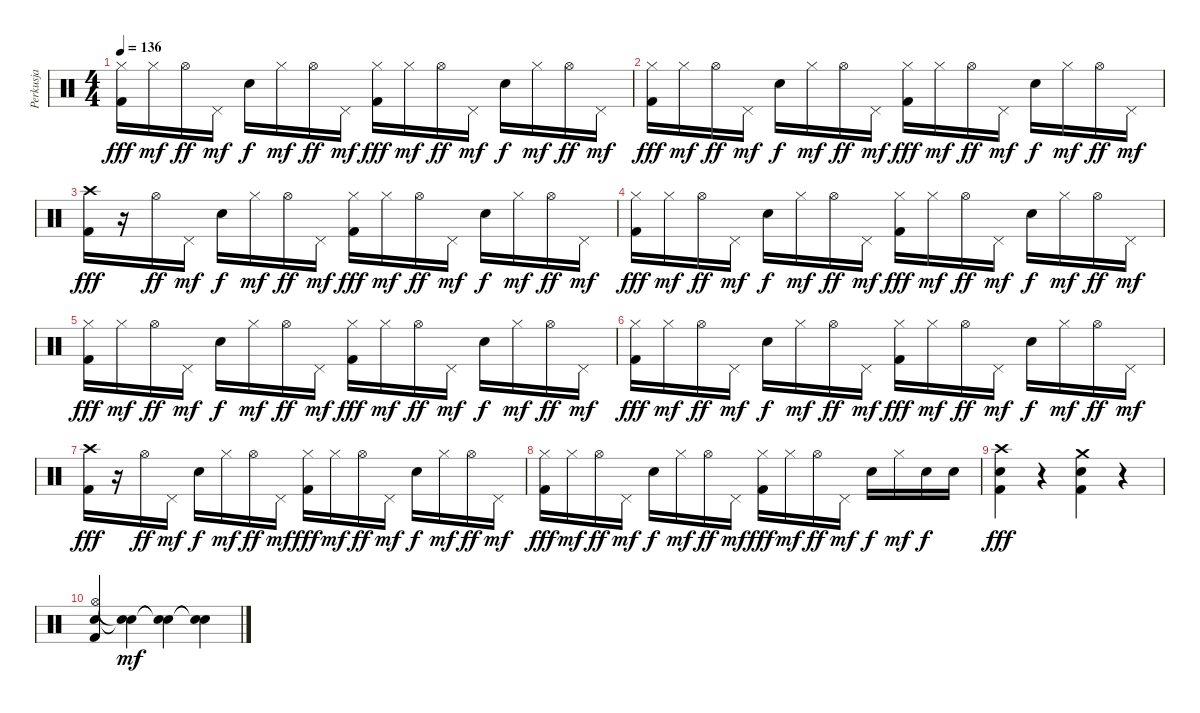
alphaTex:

\track ("Perkusja" "Perkusja") {instrument percussion}
\staff {score}
\articulation defaults
\ts (4 4)
\tempo 136
\clef neutral
\ks c
("Hi-Hat (closed)" "Kick (hit) 2").16{dy fff} "Hi-Hat (closed)".16{dy mf} "Hi-Hat (open)".16{dy ff} "Pedal Hi-Hat (hit)".16{dy mf} "Snare (hit) 2".16{dy f} "Hi-Hat (closed)".16{dy mf} "Hi-Hat (open)".16{dy ff} "Pedal Hi-Hat (hit)".16{dy mf} ("Hi-Hat (closed)" "Kick (hit) 2").16{dy fff} "Hi-Hat (closed)".16{dy mf} "Hi-Hat (open)".16{dy ff} "Pedal Hi-Hat (hit)".16{dy mf} "Snare (hit) 2".16{dy f} "Hi-Hat (closed)".16{dy mf} "Hi-Hat (open)".16{dy ff} "Pedal Hi-Hat (hit)".16{dy mf} |
("Hi-Hat (closed)" "Kick (hit) 2").16{dy fff} "Hi-Hat (closed)".16{dy mf} "Hi-Hat (open)".16{dy ff} "Pedal Hi-Hat (hit)".16{dy mf} "Snare (hit) 2".16{dy f} "Hi-Hat (closed)".16{dy mf} "Hi-Hat (open)".16{dy ff} "Pedal Hi-Hat (hit)".16{dy mf} ("Hi-Hat (closed)" "Kick (hit) 2").16{dy fff} "Hi-Hat (closed)".16{dy mf} "Hi-Hat (open)".16{dy ff} "Pedal Hi-Hat (hit)".16{dy mf} "Snare (hit) 2".16{dy f} "Hi-Hat (closed)".16{dy mf} "Hi-Hat (open)".16{dy ff} "Pedal Hi-Hat (hit)".16{dy mf} |
("Crash high (hit)" "Kick (hit) 2").16{dy fff} r.16 "Hi-Hat (open)".16{dy ff} "Pedal Hi-Hat (hit)".16{dy mf} "Snare (hit) 2".16{dy f} "Hi-Hat (closed)".16{dy mf} "Hi-Hat (open)".16{dy ff} "Pedal Hi-Hat (hit)".16{dy mf} ("Hi-Hat (closed)" "Kick (hit) 2").16{dy fff} "Hi-Hat (closed)".16{dy mf} "Hi-Hat (open)".16{dy ff} "Pedal Hi-Hat (hit)".16{dy mf} "Snare (hit) 2".16{dy f} "Hi-Hat (closed)".16{dy mf} "Hi-Hat (open)".16{dy ff} "Pedal Hi-Hat (hit)".16{dy mf} |
("Hi-Hat (closed)" "Kick (hit) 2").16{dy fff} "Hi-Hat (closed)".16{dy mf} "Hi-Hat (open)".16{dy ff} "Pedal Hi-Hat (hit)".16{dy mf} "Snare (hit) 2".16{dy f} "Hi-Hat (closed)".16{dy mf} "Hi-Hat (open)".16{dy ff} "Pedal Hi-Hat (hit)".16{dy mf} ("Hi-Hat (closed)" "Kick (hit) 2").16{dy fff} "Hi-Hat (closed)".16{dy mf} "Hi-Hat (open)".16{dy ff} "Pedal Hi-Hat (hit)".16{dy mf} "Snare (hit) 2".16{dy f} "Hi-Hat (closed)".16{dy mf} "Hi-Hat (open)".16{dy ff} "Pedal Hi-Hat (hit)".16{dy mf} |
("Hi-Hat (closed)" "Kick (hit) 2").16{dy fff} "Hi-Hat (closed)".16{dy mf} "Hi-Hat (open)".16{dy ff} "Pedal Hi-Hat (hit)".16{dy mf} "Snare (hit) 2".16{dy f} "Hi-Hat (closed)".16{dy mf} "Hi-Hat (open)".16{dy ff} "Pedal Hi-Hat (hit)".16{dy mf} ("Hi-Hat (closed)" "Kick (hit) 2").16{dy fff} "Hi-Hat (closed)".16{dy mf} "Hi-Hat (open)".16{dy ff} "Pedal Hi-Hat (hit)".16{dy mf} "Snare (hit) 2".16{dy f} "Hi-Hat (closed)".16{dy mf} "Hi-Hat (open)".16{dy ff} "Pedal Hi-Hat (hit)".16{dy mf} |
("Hi-Hat (closed)" "Kick (hit) 2").16{dy fff} "Hi-Hat (closed)".16{dy mf} "Hi-Hat (open)".16{dy ff} "Pedal Hi-Hat (hit)".16{dy mf} "Snare (hit) 2".16{dy f} "Hi-Hat (closed)".16{dy mf} "Hi-Hat (open)".16{dy ff} "Pedal Hi-Hat (hit)".16{dy mf} ("Hi-Hat (closed)" "Kick (hit) 2").16{dy fff} "Hi-Hat (closed)".16{dy mf} "Hi-Hat (open)".16{dy ff} "Pedal Hi-Hat (hit)".16{dy mf} "Snare (hit) 2".16{dy f} "Hi-Hat (closed)".16{dy mf} "Hi-Hat (open)".16{dy ff} "Pedal Hi-Hat (hit)".16{dy mf} |
("Crash high (hit)" "Kick (hit) 2").16{dy fff} r.16 "Hi-Hat (open)".16{dy ff} "Pedal Hi-Hat (hit)".16{dy mf} "Snare (hit) 2".16{dy f} "Hi-Hat (closed)".16{dy mf} "Hi-Hat (open)".16{dy ff} "Pedal Hi-Hat (hit)".16{dy mf} ("Hi-Hat (closed)" "Kick (hit) 2").16{dy fff} "Hi-Hat (closed)".16{dy mf} "Hi-Hat (open)".16{dy ff} "Pedal Hi-Hat (hit)".16{dy mf} "Snare (hit) 2".16{dy f} "Hi-Hat (closed)".16{dy mf} "Hi-Hat (open)".16{dy ff} "Pedal Hi-Hat (hit)".16{dy mf} |
("Hi-Hat (closed)" "Kick (hit) 2").16{dy fff} "Hi-Hat (closed)".16{dy mf} "Hi-Hat (open)".16{dy ff} "Pedal Hi-Hat (hit)".16{dy mf} "Snare (hit) 2".16{dy f} "Hi-Hat (closed)".16{dy mf} "Hi-Hat (open)".16{dy ff} "Pedal Hi-Hat (hit)".16{dy mf} ("Hi-Hat (closed)" "Kick (hit) 2").16{dy fff} "Hi-Hat (closed)".16{dy mf} "Hi-Hat (open)".16{dy ff} "Pedal Hi-Hat (hit)".16{dy mf} "Snare (hit) 2".16{dy f} "Hi-Hat (closed)".16{dy mf} "Snare (hit) 2".16{dy f} "Snare (hit) 2".16 |
("Crash high (hit)" "Snare (hit) 2" "Kick (hit) 2").4{dy fff} r.4 ("Crash medium (hit)" "Snare (hit) 2" "Kick (hit) 2").4 r.4 |
("Hi-Hat (open)" "Snare (hit) 2" "Kick (hit) 2").4 ("Snare (hit)"{t} "Snare (hit)"{t}).4{dy mf} ("Snare (hit)"{t} "Snare (hit)"{t}).4 ("Snare (hit)"{t} "Snare (hit)"{t}).4
